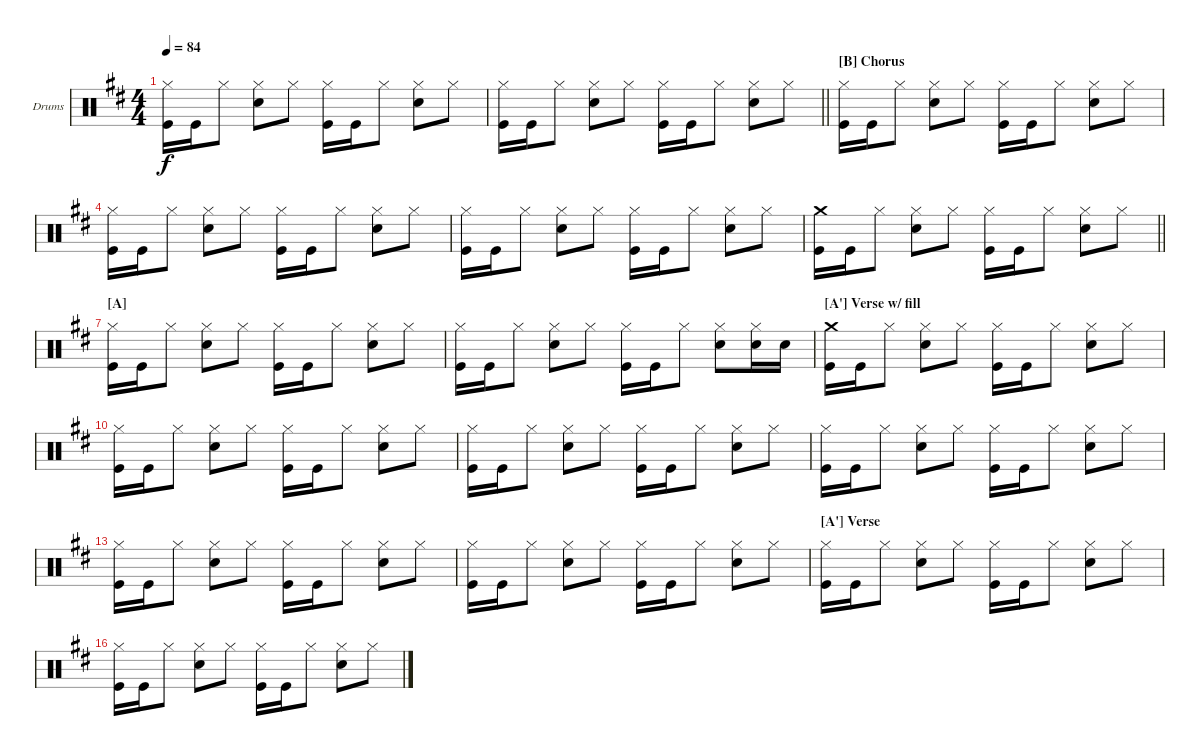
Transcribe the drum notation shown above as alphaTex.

\bracketExtendMode nobrackets
\firstSystemTrackNameOrientation horizontal
\otherSystemsTrackNameOrientation horizontal
\defaultBarNumberDisplay FirstOfSystem
\track ("Drumkit" "Drums") {instrument percussion}
\staff {score}
\articulation defaults
\ts (4 4)
\tempo 84
\clef neutral
\ks d
("Kick (hit)" "Hi-Hat (closed)").16{dy f} "Kick (hit)".16 "Hi-Hat (closed)".8 ("Snare (hit) 2" "Hi-Hat (closed)").8 "Hi-Hat (closed)".8 ("Kick (hit)" "Hi-Hat (closed)").16 "Kick (hit)".16 "Hi-Hat (closed)".8 ("Snare (hit) 2" "Hi-Hat (closed)").8 "Hi-Hat (closed)".8 |
\barLineRight lightlight
("Kick (hit)" "Hi-Hat (closed)").16 "Kick (hit)".16 "Hi-Hat (closed)".8 ("Snare (hit) 2" "Hi-Hat (closed)").8 "Hi-Hat (closed)".8 ("Kick (hit)" "Hi-Hat (closed)").16 "Kick (hit)".16 "Hi-Hat (closed)".8 ("Snare (hit) 2" "Hi-Hat (closed)").8 "Hi-Hat (closed)".8 |
\section ("B" "Chorus")
("Kick (hit)" "Hi-Hat (closed)").16 "Kick (hit)".16 "Hi-Hat (closed)".8 ("Snare (hit) 2" "Hi-Hat (closed)").8 "Hi-Hat (closed)".8 ("Kick (hit)" "Hi-Hat (closed)").16 "Kick (hit)".16 "Hi-Hat (closed)".8 ("Snare (hit) 2" "Hi-Hat (closed)").8 "Hi-Hat (closed)".8 |
("Kick (hit)" "Hi-Hat (closed)").16 "Kick (hit)".16 "Hi-Hat (closed)".8 ("Snare (hit) 2" "Hi-Hat (closed)").8 "Hi-Hat (closed)".8 ("Kick (hit)" "Hi-Hat (closed)").16 "Kick (hit)".16 "Hi-Hat (closed)".8 ("Snare (hit) 2" "Hi-Hat (closed)").8 "Hi-Hat (closed)".8 |
("Kick (hit)" "Hi-Hat (closed)").16 "Kick (hit)".16 "Hi-Hat (closed)".8 ("Snare (hit) 2" "Hi-Hat (closed)").8 "Hi-Hat (closed)".8 ("Kick (hit)" "Hi-Hat (closed)").16 "Kick (hit)".16 "Hi-Hat (closed)".8 ("Snare (hit) 2" "Hi-Hat (closed)").8 "Hi-Hat (closed)".8 |
\barLineRight lightlight
("Kick (hit)" "Crash medium (hit)").16 "Kick (hit)".16 "Hi-Hat (closed)".8 ("Snare (hit) 2" "Hi-Hat (closed)").8 "Hi-Hat (closed)".8 ("Kick (hit)" "Hi-Hat (closed)").16 "Kick (hit)".16 "Hi-Hat (closed)".8 ("Snare (hit) 2" "Hi-Hat (closed)").8 "Hi-Hat (closed)".8 |
\section ("A" "")
("Kick (hit)" "Hi-Hat (closed)").16 "Kick (hit)".16 "Hi-Hat (closed)".8 ("Snare (hit) 2" "Hi-Hat (closed)").8 "Hi-Hat (closed)".8 ("Kick (hit)" "Hi-Hat (closed)").16 "Kick (hit)".16 "Hi-Hat (closed)".8 ("Snare (hit) 2" "Hi-Hat (closed)").8 "Hi-Hat (closed)".8 |
("Kick (hit)" "Hi-Hat (closed)").16 "Kick (hit)".16 "Hi-Hat (closed)".8 ("Snare (hit) 2" "Hi-Hat (closed)").8 "Hi-Hat (closed)".8 ("Kick (hit)" "Hi-Hat (closed)").16 "Kick (hit)".16 "Hi-Hat (closed)".8 ("Snare (hit) 2" "Hi-Hat (closed)").8 ("Snare (hit) 2" "Hi-Hat (closed)").16 "Snare (hit) 2".16 |
\section ("A'" "Verse w/ fill")
("Kick (hit)" "Crash medium (hit)").16 "Kick (hit)".16 "Hi-Hat (closed)".8 ("Snare (hit) 2" "Hi-Hat (closed)").8 "Hi-Hat (closed)".8 ("Kick (hit)" "Hi-Hat (closed)").16 "Kick (hit)".16 "Hi-Hat (closed)".8 ("Snare (hit) 2" "Hi-Hat (closed)").8 "Hi-Hat (closed)".8 |
("Kick (hit)" "Hi-Hat (closed)").16 "Kick (hit)".16 "Hi-Hat (closed)".8 ("Snare (hit) 2" "Hi-Hat (closed)").8 "Hi-Hat (closed)".8 ("Kick (hit)" "Hi-Hat (closed)").16 "Kick (hit)".16 "Hi-Hat (closed)".8 ("Snare (hit) 2" "Hi-Hat (closed)").8 "Hi-Hat (closed)".8 |
("Kick (hit)" "Hi-Hat (closed)").16 "Kick (hit)".16 "Hi-Hat (closed)".8 ("Snare (hit) 2" "Hi-Hat (closed)").8 "Hi-Hat (closed)".8 ("Kick (hit)" "Hi-Hat (closed)").16 "Kick (hit)".16 "Hi-Hat (closed)".8 ("Snare (hit) 2" "Hi-Hat (closed)").8 "Hi-Hat (closed)".8 |
("Kick (hit)" "Hi-Hat (closed)").16 "Kick (hit)".16 "Hi-Hat (closed)".8 ("Snare (hit) 2" "Hi-Hat (closed)").8 "Hi-Hat (closed)".8 ("Kick (hit)" "Hi-Hat (closed)").16 "Kick (hit)".16 "Hi-Hat (closed)".8 ("Snare (hit) 2" "Hi-Hat (closed)").8 "Hi-Hat (closed)".8 |
("Kick (hit)" "Hi-Hat (closed)").16 "Kick (hit)".16 "Hi-Hat (closed)".8 ("Snare (hit) 2" "Hi-Hat (closed)").8 "Hi-Hat (closed)".8 ("Kick (hit)" "Hi-Hat (closed)").16 "Kick (hit)".16 "Hi-Hat (closed)".8 ("Snare (hit) 2" "Hi-Hat (closed)").8 "Hi-Hat (closed)".8 |
("Kick (hit)" "Hi-Hat (closed)").16 "Kick (hit)".16 "Hi-Hat (closed)".8 ("Snare (hit) 2" "Hi-Hat (closed)").8 "Hi-Hat (closed)".8 ("Kick (hit)" "Hi-Hat (closed)").16 "Kick (hit)".16 "Hi-Hat (closed)".8 ("Snare (hit) 2" "Hi-Hat (closed)").8 "Hi-Hat (closed)".8 |
\section ("A'" "Verse")
("Kick (hit)" "Hi-Hat (closed)").16 "Kick (hit)".16 "Hi-Hat (closed)".8 ("Snare (hit) 2" "Hi-Hat (closed)").8 "Hi-Hat (closed)".8 ("Kick (hit)" "Hi-Hat (closed)").16 "Kick (hit)".16 "Hi-Hat (closed)".8 ("Snare (hit) 2" "Hi-Hat (closed)").8 "Hi-Hat (closed)".8 |
("Kick (hit)" "Hi-Hat (closed)").16 "Kick (hit)".16 "Hi-Hat (closed)".8 ("Snare (hit) 2" "Hi-Hat (closed)").8 "Hi-Hat (closed)".8 ("Kick (hit)" "Hi-Hat (closed)").16 "Kick (hit)".16 "Hi-Hat (closed)".8 ("Snare (hit) 2" "Hi-Hat (closed)").8 "Hi-Hat (closed)".8
